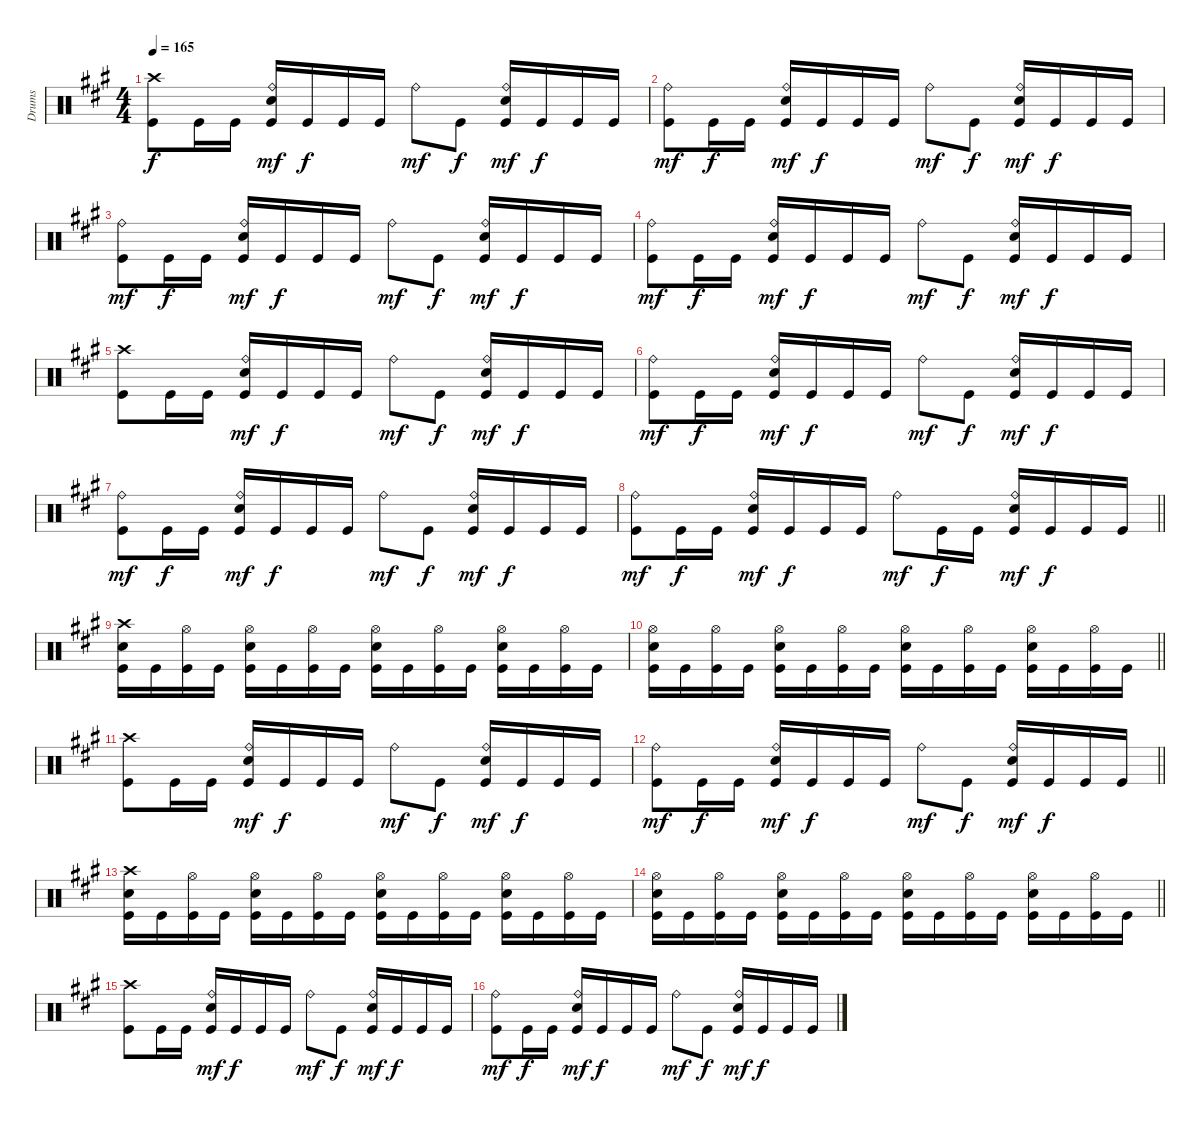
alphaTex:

\track ("Drums" "Drums") {instrument percussion}
\staff {score}
\articulation defaults
\ts (4 4)
\section ("" "")
\tempo 165
\clef neutral
\ks f#minor
("Crash high (hit)" "Kick (hit)").8{dy f} "Kick (hit)".16 "Kick (hit)".16 ("Ride (bell)" "Snare (hit) 2" "Kick (hit)").16{dy mf} "Kick (hit)".16{dy f} "Kick (hit)".16 "Kick (hit)".16 "Ride (bell)".8{dy mf} "Kick (hit)".8{dy f} ("Ride (bell)" "Snare (hit) 2" "Kick (hit)").16{dy mf} "Kick (hit)".16{dy f} "Kick (hit)".16 "Kick (hit)".16 |
("Ride (bell)" "Kick (hit)").8{dy mf} "Kick (hit)".16{dy f} "Kick (hit)".16 ("Ride (bell)" "Snare (hit) 2" "Kick (hit)").16{dy mf} "Kick (hit)".16{dy f} "Kick (hit)".16 "Kick (hit)".16 "Ride (bell)".8{dy mf} "Kick (hit)".8{dy f} ("Ride (bell)" "Snare (hit) 2" "Kick (hit)").16{dy mf} "Kick (hit)".16{dy f} "Kick (hit)".16 "Kick (hit)".16 |
("Ride (bell)" "Kick (hit)").8{dy mf} "Kick (hit)".16{dy f} "Kick (hit)".16 ("Ride (bell)" "Snare (hit) 2" "Kick (hit)").16{dy mf} "Kick (hit)".16{dy f} "Kick (hit)".16 "Kick (hit)".16 "Ride (bell)".8{dy mf} "Kick (hit)".8{dy f} ("Ride (bell)" "Snare (hit) 2" "Kick (hit)").16{dy mf} "Kick (hit)".16{dy f} "Kick (hit)".16 "Kick (hit)".16 |
("Ride (bell)" "Kick (hit)").8{dy mf} "Kick (hit)".16{dy f} "Kick (hit)".16 ("Ride (bell)" "Snare (hit) 2" "Kick (hit)").16{dy mf} "Kick (hit)".16{dy f} "Kick (hit)".16 "Kick (hit)".16 "Ride (bell)".8{dy mf} "Kick (hit)".8{dy f} ("Ride (bell)" "Snare (hit) 2" "Kick (hit)").16{dy mf} "Kick (hit)".16{dy f} "Kick (hit)".16 "Kick (hit)".16 |
("Crash high (hit)" "Kick (hit)").8 "Kick (hit)".16 "Kick (hit)".16 ("Ride (bell)" "Snare (hit) 2" "Kick (hit)").16{dy mf} "Kick (hit)".16{dy f} "Kick (hit)".16 "Kick (hit)".16 "Ride (bell)".8{dy mf} "Kick (hit)".8{dy f} ("Ride (bell)" "Snare (hit) 2" "Kick (hit)").16{dy mf} "Kick (hit)".16{dy f} "Kick (hit)".16 "Kick (hit)".16 |
("Ride (bell)" "Kick (hit)").8{dy mf} "Kick (hit)".16{dy f} "Kick (hit)".16 ("Ride (bell)" "Snare (hit) 2" "Kick (hit)").16{dy mf} "Kick (hit)".16{dy f} "Kick (hit)".16 "Kick (hit)".16 "Ride (bell)".8{dy mf} "Kick (hit)".8{dy f} ("Ride (bell)" "Snare (hit) 2" "Kick (hit)").16{dy mf} "Kick (hit)".16{dy f} "Kick (hit)".16 "Kick (hit)".16 |
("Ride (bell)" "Kick (hit)").8{dy mf} "Kick (hit)".16{dy f} "Kick (hit)".16 ("Ride (bell)" "Snare (hit) 2" "Kick (hit)").16{dy mf} "Kick (hit)".16{dy f} "Kick (hit)".16 "Kick (hit)".16 "Ride (bell)".8{dy mf} "Kick (hit)".8{dy f} ("Ride (bell)" "Snare (hit) 2" "Kick (hit)").16{dy mf} "Kick (hit)".16{dy f} "Kick (hit)".16 "Kick (hit)".16 |
\barLineRight lightlight
("Ride (bell)" "Kick (hit)").8{dy mf} "Kick (hit)".16{dy f} "Kick (hit)".16 ("Ride (bell)" "Snare (hit) 2" "Kick (hit)").16{dy mf} "Kick (hit)".16{dy f} "Kick (hit)".16 "Kick (hit)".16 "Ride (bell)".8{dy mf} "Kick (hit)".16{dy f} "Kick (hit)".16 ("Ride (bell)" "Snare (hit) 2" "Kick (hit)").16{dy mf} "Kick (hit)".16{dy f} "Kick (hit)".16 "Kick (hit)".16 |
\section ("" "")
("Crash high (hit)" "Snare (hit) 2" "Kick (hit)").16 "Kick (hit)".16 ("Hi-Hat (open)" "Kick (hit)").16 "Kick (hit)".16 ("Hi-Hat (open)" "Snare (hit) 2" "Kick (hit)").16 "Kick (hit)".16 ("Hi-Hat (open)" "Kick (hit)").16 "Kick (hit)".16 ("Hi-Hat (open)" "Snare (hit) 2" "Kick (hit)").16 "Kick (hit)".16 ("Hi-Hat (open)" "Kick (hit)").16 "Kick (hit)".16 ("Hi-Hat (open)" "Snare (hit) 2" "Kick (hit)").16 "Kick (hit)".16 ("Hi-Hat (open)" "Kick (hit)").16 "Kick (hit)".16 |
\barLineRight lightlight
("Hi-Hat (open)" "Snare (hit) 2" "Kick (hit)").16 "Kick (hit)".16 ("Hi-Hat (open)" "Kick (hit)").16 "Kick (hit)".16 ("Hi-Hat (open)" "Snare (hit) 2" "Kick (hit)").16 "Kick (hit)".16 ("Hi-Hat (open)" "Kick (hit)").16 "Kick (hit)".16 ("Hi-Hat (open)" "Snare (hit) 2" "Kick (hit)").16 "Kick (hit)".16 ("Hi-Hat (open)" "Kick (hit)").16 "Kick (hit)".16 ("Hi-Hat (open)" "Snare (hit) 2" "Kick (hit)").16 "Kick (hit)".16 ("Hi-Hat (open)" "Kick (hit)").16 "Kick (hit)".16 |
\section ("" "")
("Crash high (hit)" "Kick (hit)").8 "Kick (hit)".16 "Kick (hit)".16 ("Ride (bell)" "Snare (hit) 2" "Kick (hit)").16{dy mf} "Kick (hit)".16{dy f} "Kick (hit)".16 "Kick (hit)".16 "Ride (bell)".8{dy mf} "Kick (hit)".8{dy f} ("Ride (bell)" "Snare (hit) 2" "Kick (hit)").16{dy mf} "Kick (hit)".16{dy f} "Kick (hit)".16 "Kick (hit)".16 |
\barLineRight lightlight
("Ride (bell)" "Kick (hit)").8{dy mf} "Kick (hit)".16{dy f} "Kick (hit)".16 ("Ride (bell)" "Snare (hit) 2" "Kick (hit)").16{dy mf} "Kick (hit)".16{dy f} "Kick (hit)".16 "Kick (hit)".16 "Ride (bell)".8{dy mf} "Kick (hit)".8{dy f} ("Ride (bell)" "Snare (hit) 2" "Kick (hit)").16{dy mf} "Kick (hit)".16{dy f} "Kick (hit)".16 "Kick (hit)".16 |
\section ("" "")
("Crash high (hit)" "Snare (hit) 2" "Kick (hit)").16 "Kick (hit)".16 ("Hi-Hat (open)" "Kick (hit)").16 "Kick (hit)".16 ("Hi-Hat (open)" "Snare (hit) 2" "Kick (hit)").16 "Kick (hit)".16 ("Hi-Hat (open)" "Kick (hit)").16 "Kick (hit)".16 ("Hi-Hat (open)" "Snare (hit) 2" "Kick (hit)").16 "Kick (hit)".16 ("Hi-Hat (open)" "Kick (hit)").16 "Kick (hit)".16 ("Hi-Hat (open)" "Snare (hit) 2" "Kick (hit)").16 "Kick (hit)".16 ("Hi-Hat (open)" "Kick (hit)").16 "Kick (hit)".16 |
\barLineRight lightlight
("Hi-Hat (open)" "Snare (hit) 2" "Kick (hit)").16 "Kick (hit)".16 ("Hi-Hat (open)" "Kick (hit)").16 "Kick (hit)".16 ("Hi-Hat (open)" "Snare (hit) 2" "Kick (hit)").16 "Kick (hit)".16 ("Hi-Hat (open)" "Kick (hit)").16 "Kick (hit)".16 ("Hi-Hat (open)" "Snare (hit) 2" "Kick (hit)").16 "Kick (hit)".16 ("Hi-Hat (open)" "Kick (hit)").16 "Kick (hit)".16 ("Hi-Hat (open)" "Snare (hit) 2" "Kick (hit)").16 "Kick (hit)".16 ("Hi-Hat (open)" "Kick (hit)").16 "Kick (hit)".16 |
\section ("" "")
("Crash high (hit)" "Kick (hit)").8 "Kick (hit)".16 "Kick (hit)".16 ("Ride (bell)" "Snare (hit) 2" "Kick (hit)").16{dy mf} "Kick (hit)".16{dy f} "Kick (hit)".16 "Kick (hit)".16 "Ride (bell)".8{dy mf} "Kick (hit)".8{dy f} ("Ride (bell)" "Snare (hit) 2" "Kick (hit)").16{dy mf} "Kick (hit)".16{dy f} "Kick (hit)".16 "Kick (hit)".16 |
("Ride (bell)" "Kick (hit)").8{dy mf} "Kick (hit)".16{dy f} "Kick (hit)".16 ("Ride (bell)" "Snare (hit) 2" "Kick (hit)").16{dy mf} "Kick (hit)".16{dy f} "Kick (hit)".16 "Kick (hit)".16 "Ride (bell)".8{dy mf} "Kick (hit)".8{dy f} ("Ride (bell)" "Snare (hit) 2" "Kick (hit)").16{dy mf} "Kick (hit)".16{dy f} "Kick (hit)".16 "Kick (hit)".16
